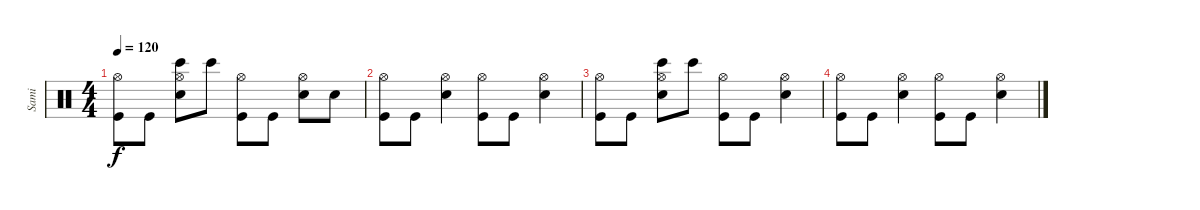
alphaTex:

\track ("Sami" "Sami") {instrument percussion}
\staff {score}
\articulation defaults
\ts (4 4)
\tempo 120
\clef neutral
\ks c
("Hi-Hat (open)" "Kick (hit)").8{dy f} "Kick (hit)".8 ("Hi-Hat (open)" "Bongo High (hit)" "Electric Snare (hit)").8 "Bongo High (hit)".8 ("Hi-Hat (open)" "Kick (hit)").8 "Kick (hit)".8 ("Hi-Hat (open)" "Electric Snare (hit)").8 "Electric Snare (hit)".8 |
("Hi-Hat (open)" "Kick (hit)").8{volume 0} "Kick (hit)".8 ("Hi-Hat (open)" "Electric Snare (hit)").4 ("Hi-Hat (open)" "Kick (hit)").8 "Kick (hit)".8 ("Hi-Hat (open)" "Electric Snare (hit)").4 |
("Hi-Hat (open)" "Kick (hit)").8 "Kick (hit)".8 ("Hi-Hat (open)" "Bongo High (hit)" "Electric Snare (hit)").8 "Bongo High (hit)".8 ("Hi-Hat (open)" "Kick (hit)").8 "Kick (hit)".8 ("Hi-Hat (open)" "Electric Snare (hit)").4 |
("Hi-Hat (open)" "Kick (hit)").8 "Kick (hit)".8 ("Hi-Hat (open)" "Electric Snare (hit)").4 ("Hi-Hat (open)" "Kick (hit)").8 "Kick (hit)".8 ("Hi-Hat (open)" "Electric Snare (hit)").4
